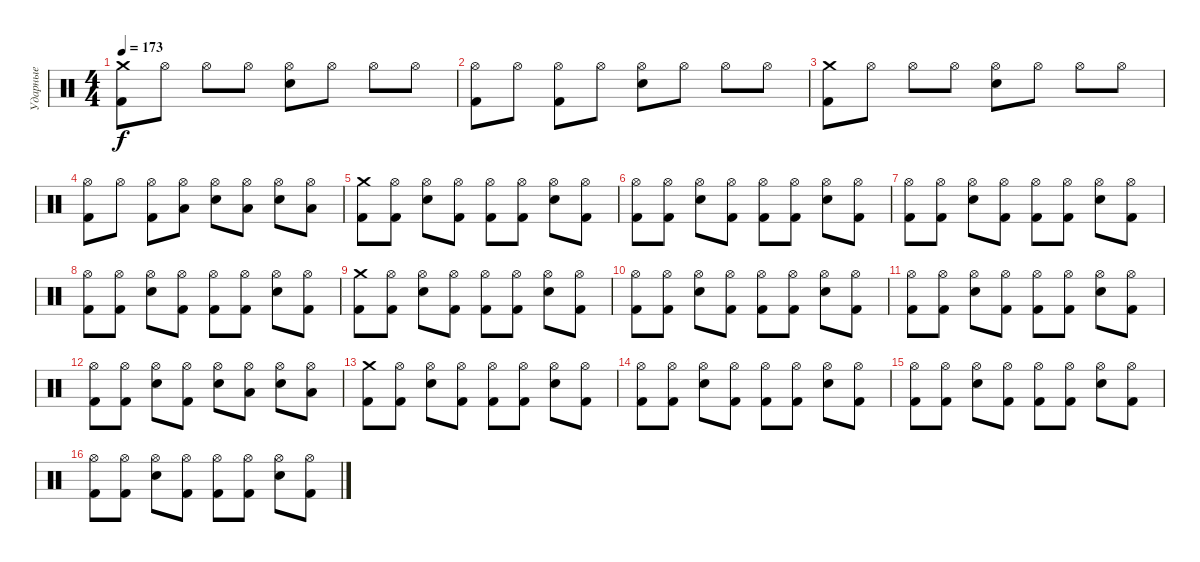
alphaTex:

\track ("Ударные" "Ударные") {instrument percussion}
\staff {score}
\articulation defaults
\ts (4 4)
\tempo 173
\clef neutral
\ks c
("Crash medium (hit)" "Kick (hit) 2").8{dy f} "Hi-Hat (open)".8 "Hi-Hat (open)".8 "Hi-Hat (open)".8 ("Hi-Hat (open)" "Electric Snare (hit)").8 "Hi-Hat (open)".8 "Hi-Hat (open)".8 "Hi-Hat (open)".8 |
("Hi-Hat (open)" "Kick (hit) 2").8 "Hi-Hat (open)".8 ("Hi-Hat (open)" "Kick (hit) 2").8 "Hi-Hat (open)".8 ("Hi-Hat (open)" "Electric Snare (hit)").8 "Hi-Hat (open)".8 "Hi-Hat (open)".8 "Hi-Hat (open)".8 |
("Crash medium (hit)" "Kick (hit) 2").8 "Hi-Hat (open)".8 "Hi-Hat (open)".8 "Hi-Hat (open)".8 ("Hi-Hat (open)" "Electric Snare (hit)").8 "Hi-Hat (open)".8 "Hi-Hat (open)".8 "Hi-Hat (open)".8 |
("Hi-Hat (open)" "Kick (hit) 2").8 "Hi-Hat (open)".8 ("Hi-Hat (open)" "Kick (hit) 2").8 ("Hi-Hat (open)" "Low Tom (hit)").8 ("Hi-Hat (open)" "Electric Snare (hit)").8 ("Hi-Hat (open)" "Low Tom (hit)").8 ("Hi-Hat (open)" "Electric Snare (hit)").8 ("Hi-Hat (open)" "Low Tom (hit)").8 |
("Crash medium (hit)" "Kick (hit) 2").8 ("Hi-Hat (open)" "Kick (hit) 2").8 ("Hi-Hat (open)" "Electric Snare (hit)").8 ("Hi-Hat (open)" "Kick (hit) 2").8 ("Hi-Hat (open)" "Kick (hit) 2").8 ("Hi-Hat (open)" "Kick (hit) 2").8 ("Hi-Hat (open)" "Electric Snare (hit)").8 ("Hi-Hat (open)" "Kick (hit) 2").8 |
("Hi-Hat (open)" "Kick (hit) 2").8 ("Hi-Hat (open)" "Kick (hit) 2").8 ("Hi-Hat (open)" "Electric Snare (hit)").8 ("Hi-Hat (open)" "Kick (hit) 2").8 ("Hi-Hat (open)" "Kick (hit) 2").8 ("Hi-Hat (open)" "Kick (hit) 2").8 ("Hi-Hat (open)" "Electric Snare (hit)").8 ("Hi-Hat (open)" "Kick (hit) 2").8 |
("Hi-Hat (open)" "Kick (hit) 2").8 ("Hi-Hat (open)" "Kick (hit) 2").8 ("Hi-Hat (open)" "Electric Snare (hit)").8 ("Hi-Hat (open)" "Kick (hit) 2").8 ("Hi-Hat (open)" "Kick (hit) 2").8 ("Hi-Hat (open)" "Kick (hit) 2").8 ("Hi-Hat (open)" "Electric Snare (hit)").8 ("Hi-Hat (open)" "Kick (hit) 2").8 |
("Hi-Hat (open)" "Kick (hit) 2").8 ("Hi-Hat (open)" "Kick (hit) 2").8 ("Hi-Hat (open)" "Electric Snare (hit)").8 ("Hi-Hat (open)" "Kick (hit) 2").8 ("Hi-Hat (open)" "Kick (hit) 2").8 ("Hi-Hat (open)" "Kick (hit) 2").8 ("Hi-Hat (open)" "Electric Snare (hit)").8 ("Hi-Hat (open)" "Kick (hit) 2").8 |
("Crash medium (hit)" "Kick (hit) 2").8 ("Hi-Hat (open)" "Kick (hit) 2").8 ("Hi-Hat (open)" "Electric Snare (hit)").8 ("Hi-Hat (open)" "Kick (hit) 2").8 ("Hi-Hat (open)" "Kick (hit) 2").8 ("Hi-Hat (open)" "Kick (hit) 2").8 ("Hi-Hat (open)" "Electric Snare (hit)").8 ("Hi-Hat (open)" "Kick (hit) 2").8 |
("Hi-Hat (open)" "Kick (hit) 2").8 ("Hi-Hat (open)" "Kick (hit) 2").8 ("Hi-Hat (open)" "Electric Snare (hit)").8 ("Hi-Hat (open)" "Kick (hit) 2").8 ("Hi-Hat (open)" "Kick (hit) 2").8 ("Hi-Hat (open)" "Kick (hit) 2").8 ("Hi-Hat (open)" "Electric Snare (hit)").8 ("Hi-Hat (open)" "Kick (hit) 2").8 |
("Hi-Hat (open)" "Kick (hit) 2").8 ("Hi-Hat (open)" "Kick (hit) 2").8 ("Hi-Hat (open)" "Electric Snare (hit)").8 ("Hi-Hat (open)" "Kick (hit) 2").8 ("Hi-Hat (open)" "Kick (hit) 2").8 ("Hi-Hat (open)" "Kick (hit) 2").8 ("Hi-Hat (open)" "Electric Snare (hit)").8 ("Hi-Hat (open)" "Kick (hit) 2").8 |
("Hi-Hat (open)" "Kick (hit) 2").8 ("Hi-Hat (open)" "Kick (hit) 2").8 ("Hi-Hat (open)" "Electric Snare (hit)").8 ("Hi-Hat (open)" "Kick (hit) 2").8 ("Hi-Hat (open)" "Electric Snare (hit)").8 ("Hi-Hat (open)" "Low Tom (hit)").8 ("Hi-Hat (open)" "Electric Snare (hit)").8 ("Hi-Hat (open)" "Low Tom (hit)").8 |
("Crash medium (hit)" "Kick (hit) 2").8 ("Hi-Hat (open)" "Kick (hit) 2").8 ("Hi-Hat (open)" "Electric Snare (hit)").8 ("Hi-Hat (open)" "Kick (hit) 2").8 ("Hi-Hat (open)" "Kick (hit) 2").8 ("Hi-Hat (open)" "Kick (hit) 2").8 ("Hi-Hat (open)" "Electric Snare (hit)").8 ("Hi-Hat (open)" "Kick (hit) 2").8 |
("Hi-Hat (open)" "Kick (hit) 2").8 ("Hi-Hat (open)" "Kick (hit) 2").8 ("Hi-Hat (open)" "Electric Snare (hit)").8 ("Hi-Hat (open)" "Kick (hit) 2").8 ("Hi-Hat (open)" "Kick (hit) 2").8 ("Hi-Hat (open)" "Kick (hit) 2").8 ("Hi-Hat (open)" "Electric Snare (hit)").8 ("Hi-Hat (open)" "Kick (hit) 2").8 |
("Hi-Hat (open)" "Kick (hit) 2").8 ("Hi-Hat (open)" "Kick (hit) 2").8 ("Hi-Hat (open)" "Electric Snare (hit)").8 ("Hi-Hat (open)" "Kick (hit) 2").8 ("Hi-Hat (open)" "Kick (hit) 2").8 ("Hi-Hat (open)" "Kick (hit) 2").8 ("Hi-Hat (open)" "Electric Snare (hit)").8 ("Hi-Hat (open)" "Kick (hit) 2").8 |
("Hi-Hat (open)" "Kick (hit) 2").8 ("Hi-Hat (open)" "Kick (hit) 2").8 ("Hi-Hat (open)" "Electric Snare (hit)").8 ("Hi-Hat (open)" "Kick (hit) 2").8 ("Hi-Hat (open)" "Kick (hit) 2").8 ("Hi-Hat (open)" "Kick (hit) 2").8 ("Hi-Hat (open)" "Electric Snare (hit)").8 ("Hi-Hat (open)" "Kick (hit) 2").8
